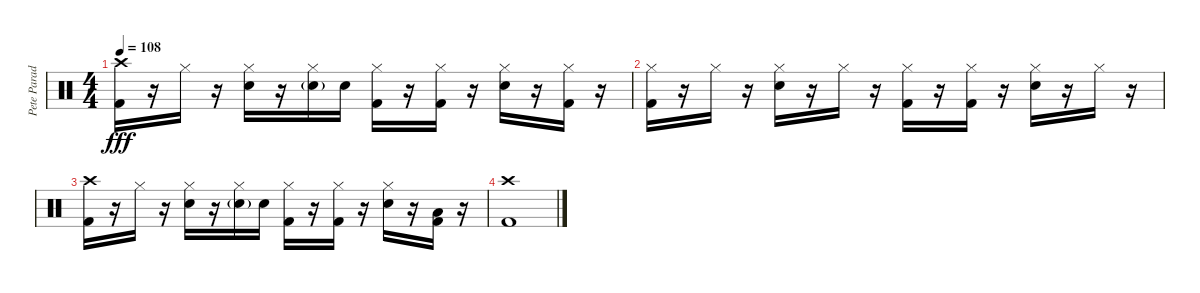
\track ("Pete Parada - Drums" "Pete Parad") {instrument percussion}
\staff {score}
\articulation defaults
\ts (4 4)
\tempo 108
\clef neutral
\ks c
("Crash high (hit)" "Kick (hit) 2").16{dy fff} r.16 "Hi-Hat (closed)".16 r.16 ("Hi-Hat (closed)" "Electric Snare (hit)").16 r.16 ("Hi-Hat (closed)" "Electric Snare (hit)"{g}).16 "Electric Snare (hit)".16 ("Hi-Hat (closed)" "Kick (hit) 2").16 r.16 ("Hi-Hat (closed)" "Kick (hit) 2").16 r.16 ("Hi-Hat (closed)" "Electric Snare (hit)").16 r.16 ("Hi-Hat (closed)" "Kick (hit) 2").16 r.16 |
("Hi-Hat (closed)" "Kick (hit) 2").16 r.16 "Hi-Hat (closed)".16 r.16 ("Hi-Hat (closed)" "Electric Snare (hit)").16 r.16 "Hi-Hat (closed)".16 r.16 ("Hi-Hat (closed)" "Kick (hit) 2").16 r.16 ("Hi-Hat (closed)" "Kick (hit) 2").16 r.16 ("Hi-Hat (closed)" "Electric Snare (hit)").16 r.16 "Hi-Hat (closed)".16 r.16 |
("Crash high (hit)" "Kick (hit) 2").16 r.16 "Hi-Hat (closed)".16 r.16 ("Hi-Hat (closed)" "Electric Snare (hit)").16 r.16 ("Hi-Hat (closed)" "Electric Snare (hit)"{g}).16 "Electric Snare (hit)".16 ("Hi-Hat (closed)" "Kick (hit) 2").16 r.16 ("Hi-Hat (closed)" "Kick (hit) 2").16 r.16 ("Hi-Hat (closed)" "Electric Snare (hit)").16 r.16 ("Low Floor Tom (hit)" "Kick (hit) 2").16 r.16 |
("Crash high (hit)" "Kick (hit) 2").1
